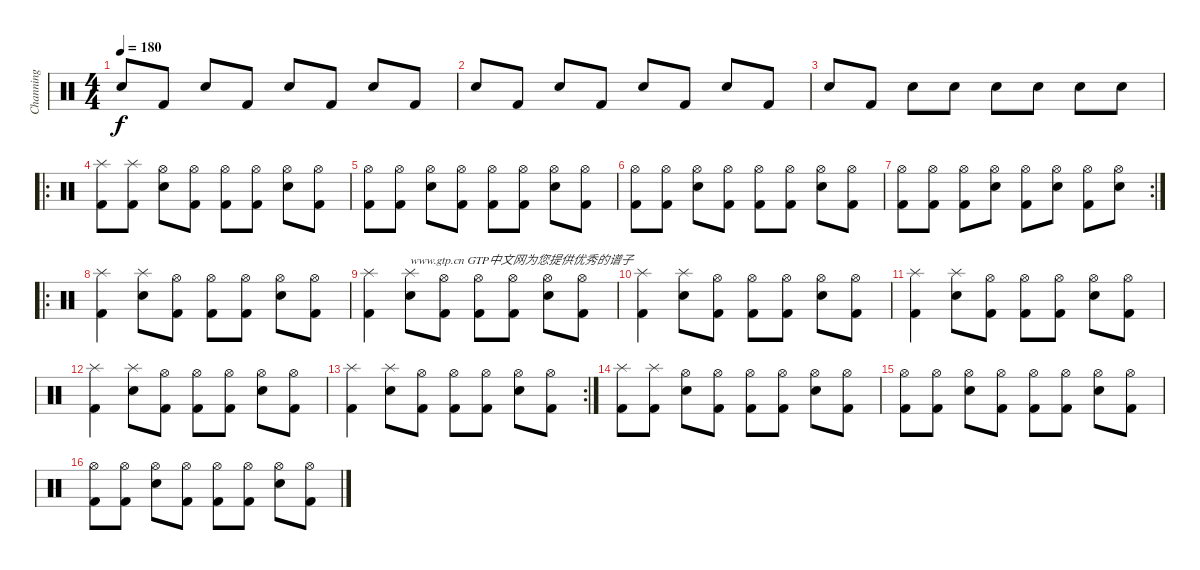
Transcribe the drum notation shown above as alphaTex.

\track ("Channing" "Channing") {instrument percussion}
\staff {score}
\articulation defaults
\ts (4 4)
\tempo 180
\clef neutral
\ks c "Snare (hit) 2".8{dy f volume 16} "Kick (hit) 2".8 "Snare (hit) 2".8 "Kick (hit) 2".8 "Snare (hit) 2".8 "Kick (hit) 2".8 "Snare (hit) 2".8 "Kick (hit) 2".8
|
"Snare (hit) 2".8 "Kick (hit) 2".8 "Snare (hit) 2".8 "Kick (hit) 2".8 "Snare (hit) 2".8 "Kick (hit) 2".8 "Snare (hit) 2".8 "Kick (hit) 2".8 |
"Snare (hit) 2".8 "Kick (hit) 2".8 "Snare (hit) 2".8 "Snare (hit) 2".8 "Snare (hit) 2".8 "Snare (hit) 2".8 "Snare (hit) 2".8 "Snare (hit) 2".8 |
\ro
("Splash (hit)" "Kick (hit) 2").8 ("Splash (hit)" "Kick (hit) 2").8 ("Hi-Hat (open)" "Snare (hit) 2").8 ("Hi-Hat (open)" "Kick (hit) 2").8 ("Hi-Hat (open)" "Kick (hit) 2").8 ("Hi-Hat (open)" "Kick (hit) 2").8 ("Hi-Hat (open)" "Snare (hit) 2").8 ("Hi-Hat (open)" "Kick (hit) 2").8 |
("Hi-Hat (open)" "Kick (hit) 2").8 ("Hi-Hat (open)" "Kick (hit) 2").8 ("Hi-Hat (open)" "Snare (hit) 2").8 ("Hi-Hat (open)" "Kick (hit) 2").8 ("Hi-Hat (open)" "Kick (hit) 2").8 ("Hi-Hat (open)" "Kick (hit) 2").8 ("Hi-Hat (open)" "Snare (hit) 2").8 ("Hi-Hat (open)" "Kick (hit) 2").8 |
("Hi-Hat (open)" "Kick (hit) 2").8 ("Hi-Hat (open)" "Kick (hit) 2").8 ("Hi-Hat (open)" "Snare (hit) 2").8 ("Hi-Hat (open)" "Kick (hit) 2").8 ("Hi-Hat (open)" "Kick (hit) 2").8 ("Hi-Hat (open)" "Kick (hit) 2").8 ("Hi-Hat (open)" "Snare (hit) 2").8 ("Hi-Hat (open)" "Kick (hit) 2").8 |
\rc 2
("Hi-Hat (open)" "Kick (hit) 2").8 ("Hi-Hat (open)" "Kick (hit) 2").8 ("Hi-Hat (open)" "Kick (hit) 2").8 ("Hi-Hat (open)" "Snare (hit) 2").8 ("Hi-Hat (open)" "Kick (hit) 2").8 ("Hi-Hat (open)" "Snare (hit) 2").8 ("Hi-Hat (open)" "Kick (hit) 2").8 ("Hi-Hat (open)" "Snare (hit) 2").8 |
\ro
("Splash (hit)" "Kick (hit) 2").4 ("Splash (hit)" "Snare (hit) 2").8 ("Hi-Hat (open)" "Kick (hit) 2").8 ("Hi-Hat (open)" "Kick (hit) 2").8 ("Hi-Hat (open)" "Kick (hit) 2").8 ("Hi-Hat (open)" "Snare (hit) 2").8 ("Hi-Hat (open)" "Kick (hit) 2").8 |
("Splash (hit)" "Kick (hit) 2").4 ("Splash (hit)" "Snare (hit) 2").8{txt "www.gtp.cn GTP中文网为您提供优秀的谱子"} ("Hi-Hat (open)" "Kick (hit) 2").8 ("Hi-Hat (open)" "Kick (hit) 2").8 ("Hi-Hat (open)" "Kick (hit) 2").8 ("Hi-Hat (open)" "Snare (hit) 2").8 ("Hi-Hat (open)" "Kick (hit) 2").8 |
("Splash (hit)" "Kick (hit) 2").4 ("Splash (hit)" "Snare (hit) 2").8 ("Hi-Hat (open)" "Kick (hit) 2").8 ("Hi-Hat (open)" "Kick (hit) 2").8 ("Hi-Hat (open)" "Kick (hit) 2").8 ("Hi-Hat (open)" "Snare (hit) 2").8 ("Hi-Hat (open)" "Kick (hit) 2").8 |
("Splash (hit)" "Kick (hit) 2").4 ("Splash (hit)" "Snare (hit) 2").8 ("Hi-Hat (open)" "Kick (hit) 2").8 ("Hi-Hat (open)" "Kick (hit) 2").8 ("Hi-Hat (open)" "Kick (hit) 2").8 ("Hi-Hat (open)" "Snare (hit) 2").8 ("Hi-Hat (open)" "Kick (hit) 2").8 |
("Splash (hit)" "Kick (hit) 2").4 ("Splash (hit)" "Snare (hit) 2").8 ("Hi-Hat (open)" "Kick (hit) 2").8 ("Hi-Hat (open)" "Kick (hit) 2").8 ("Hi-Hat (open)" "Kick (hit) 2").8 ("Hi-Hat (open)" "Snare (hit) 2").8 ("Hi-Hat (open)" "Kick (hit) 2").8 |
\rc 2
("Splash (hit)" "Kick (hit) 2").4 ("Splash (hit)" "Snare (hit) 2").8 ("Hi-Hat (open)" "Kick (hit) 2").8 ("Hi-Hat (open)" "Kick (hit) 2").8 ("Hi-Hat (open)" "Kick (hit) 2").8 ("Hi-Hat (open)" "Snare (hit) 2").8 ("Hi-Hat (open)" "Kick (hit) 2").8 |
("Splash (hit)" "Kick (hit) 2").8 ("Splash (hit)" "Kick (hit) 2").8 ("Hi-Hat (open)" "Snare (hit) 2").8 ("Hi-Hat (open)" "Kick (hit) 2").8 ("Hi-Hat (open)" "Kick (hit) 2").8 ("Hi-Hat (open)" "Kick (hit) 2").8 ("Hi-Hat (open)" "Snare (hit) 2").8 ("Hi-Hat (open)" "Kick (hit) 2").8 |
("Hi-Hat (open)" "Kick (hit) 2").8 ("Hi-Hat (open)" "Kick (hit) 2").8 ("Hi-Hat (open)" "Snare (hit) 2").8 ("Hi-Hat (open)" "Kick (hit) 2").8 ("Hi-Hat (open)" "Kick (hit) 2").8 ("Hi-Hat (open)" "Kick (hit) 2").8 ("Hi-Hat (open)" "Snare (hit) 2").8 ("Hi-Hat (open)" "Kick (hit) 2").8 |
("Hi-Hat (open)" "Kick (hit) 2").8 ("Hi-Hat (open)" "Kick (hit) 2").8 ("Hi-Hat (open)" "Snare (hit) 2").8 ("Hi-Hat (open)" "Kick (hit) 2").8 ("Hi-Hat (open)" "Kick (hit) 2").8 ("Hi-Hat (open)" "Kick (hit) 2").8 ("Hi-Hat (open)" "Snare (hit) 2").8 ("Hi-Hat (open)" "Kick (hit) 2").8
